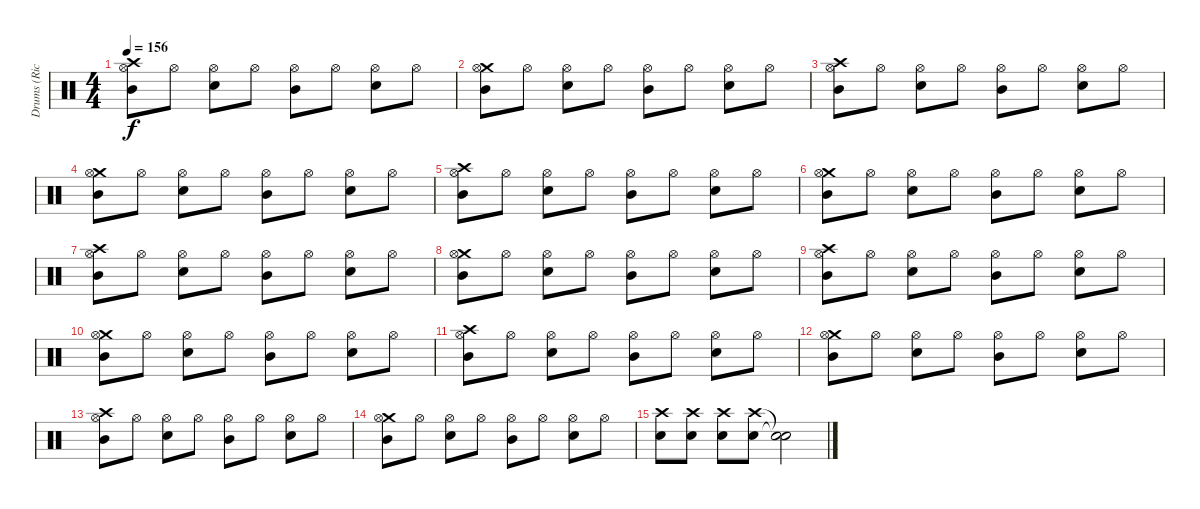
\track ("Drums (Ricky)" "Drums (Ric") {instrument percussion}
\staff {score}
\articulation defaults
\ts (4 4)
\tempo 156
\clef neutral
\ks c
("Crash high (hit)" "Mid Tom (hit)" "Hi-Hat (open)").8{dy f} "Hi-Hat (open)".8 ("Electric Snare (hit)" "Hi-Hat (open)").8 "Hi-Hat (open)".8 ("Mid Tom (hit)" "Hi-Hat (open)").8 "Hi-Hat (open)".8 ("Electric Snare (hit)" "Hi-Hat (open)").8 "Hi-Hat (open)".8 |
("Crash medium (hit)" "Mid Tom (hit)" "Hi-Hat (open)").8 "Hi-Hat (open)".8 ("Electric Snare (hit)" "Hi-Hat (open)").8 "Hi-Hat (open)".8 ("Mid Tom (hit)" "Hi-Hat (open)").8 "Hi-Hat (open)".8 ("Electric Snare (hit)" "Hi-Hat (open)").8 "Hi-Hat (open)".8 |
("Crash high (hit)" "Mid Tom (hit)" "Hi-Hat (open)").8 "Hi-Hat (open)".8 ("Electric Snare (hit)" "Hi-Hat (open)").8 "Hi-Hat (open)".8 ("Mid Tom (hit)" "Hi-Hat (open)").8 "Hi-Hat (open)".8 ("Electric Snare (hit)" "Hi-Hat (open)").8 "Hi-Hat (open)".8 |
("Crash medium (hit)" "Mid Tom (hit)" "Hi-Hat (open)").8 "Hi-Hat (open)".8 ("Electric Snare (hit)" "Hi-Hat (open)").8 "Hi-Hat (open)".8 ("Mid Tom (hit)" "Hi-Hat (open)").8 "Hi-Hat (open)".8 ("Electric Snare (hit)" "Hi-Hat (open)").8 "Hi-Hat (open)".8 |
("Crash high (hit)" "Mid Tom (hit)" "Hi-Hat (open)").8 "Hi-Hat (open)".8 ("Electric Snare (hit)" "Hi-Hat (open)").8 "Hi-Hat (open)".8 ("Mid Tom (hit)" "Hi-Hat (open)").8 "Hi-Hat (open)".8 ("Electric Snare (hit)" "Hi-Hat (open)").8 "Hi-Hat (open)".8 |
("Crash medium (hit)" "Mid Tom (hit)" "Hi-Hat (open)").8 "Hi-Hat (open)".8 ("Electric Snare (hit)" "Hi-Hat (open)").8 "Hi-Hat (open)".8 ("Mid Tom (hit)" "Hi-Hat (open)").8 "Hi-Hat (open)".8 ("Electric Snare (hit)" "Hi-Hat (open)").8 "Hi-Hat (open)".8 |
("Crash high (hit)" "Mid Tom (hit)" "Hi-Hat (open)").8 "Hi-Hat (open)".8 ("Electric Snare (hit)" "Hi-Hat (open)").8 "Hi-Hat (open)".8 ("Mid Tom (hit)" "Hi-Hat (open)").8 "Hi-Hat (open)".8 ("Electric Snare (hit)" "Hi-Hat (open)").8 "Hi-Hat (open)".8 |
("Crash medium (hit)" "Mid Tom (hit)" "Hi-Hat (open)").8 "Hi-Hat (open)".8 ("Electric Snare (hit)" "Hi-Hat (open)").8 "Hi-Hat (open)".8 ("Mid Tom (hit)" "Hi-Hat (open)").8 "Hi-Hat (open)".8 ("Electric Snare (hit)" "Hi-Hat (open)").8 "Hi-Hat (open)".8 |
("Crash high (hit)" "Mid Tom (hit)" "Hi-Hat (open)").8 "Hi-Hat (open)".8 ("Electric Snare (hit)" "Hi-Hat (open)").8 "Hi-Hat (open)".8 ("Mid Tom (hit)" "Hi-Hat (open)").8 "Hi-Hat (open)".8 ("Electric Snare (hit)" "Hi-Hat (open)").8 "Hi-Hat (open)".8 |
("Crash medium (hit)" "Mid Tom (hit)" "Hi-Hat (open)").8 "Hi-Hat (open)".8 ("Electric Snare (hit)" "Hi-Hat (open)").8 "Hi-Hat (open)".8 ("Mid Tom (hit)" "Hi-Hat (open)").8 "Hi-Hat (open)".8 ("Electric Snare (hit)" "Hi-Hat (open)").8 "Hi-Hat (open)".8 |
("Crash high (hit)" "Mid Tom (hit)" "Hi-Hat (open)").8 "Hi-Hat (open)".8 ("Electric Snare (hit)" "Hi-Hat (open)").8 "Hi-Hat (open)".8 ("Mid Tom (hit)" "Hi-Hat (open)").8 "Hi-Hat (open)".8 ("Electric Snare (hit)" "Hi-Hat (open)").8 "Hi-Hat (open)".8 |
("Crash medium (hit)" "Mid Tom (hit)" "Hi-Hat (open)").8 "Hi-Hat (open)".8 ("Electric Snare (hit)" "Hi-Hat (open)").8 "Hi-Hat (open)".8 ("Mid Tom (hit)" "Hi-Hat (open)").8 "Hi-Hat (open)".8 ("Electric Snare (hit)" "Hi-Hat (open)").8 "Hi-Hat (open)".8 |
("Crash high (hit)" "Mid Tom (hit)" "Hi-Hat (open)").8 "Hi-Hat (open)".8 ("Electric Snare (hit)" "Hi-Hat (open)").8 "Hi-Hat (open)".8 ("Mid Tom (hit)" "Hi-Hat (open)").8 "Hi-Hat (open)".8 ("Electric Snare (hit)" "Hi-Hat (open)").8 "Hi-Hat (open)".8 |
("Crash medium (hit)" "Mid Tom (hit)" "Hi-Hat (open)").8 "Hi-Hat (open)".8 ("Electric Snare (hit)" "Hi-Hat (open)").8 "Hi-Hat (open)".8 ("Mid Tom (hit)" "Hi-Hat (open)").8 "Hi-Hat (open)".8 ("Electric Snare (hit)" "Hi-Hat (open)").8 "Hi-Hat (open)".8 |
("Electric Snare (hit)" "Crash high (hit)").8 ("Electric Snare (hit)" "Crash high (hit)").8 ("Electric Snare (hit)" "Crash high (hit)").8 ("Electric Snare (hit)" "Crash high (hit)").8 ("Snare (hit)"{t} "Snare (hit)"{t}).2
